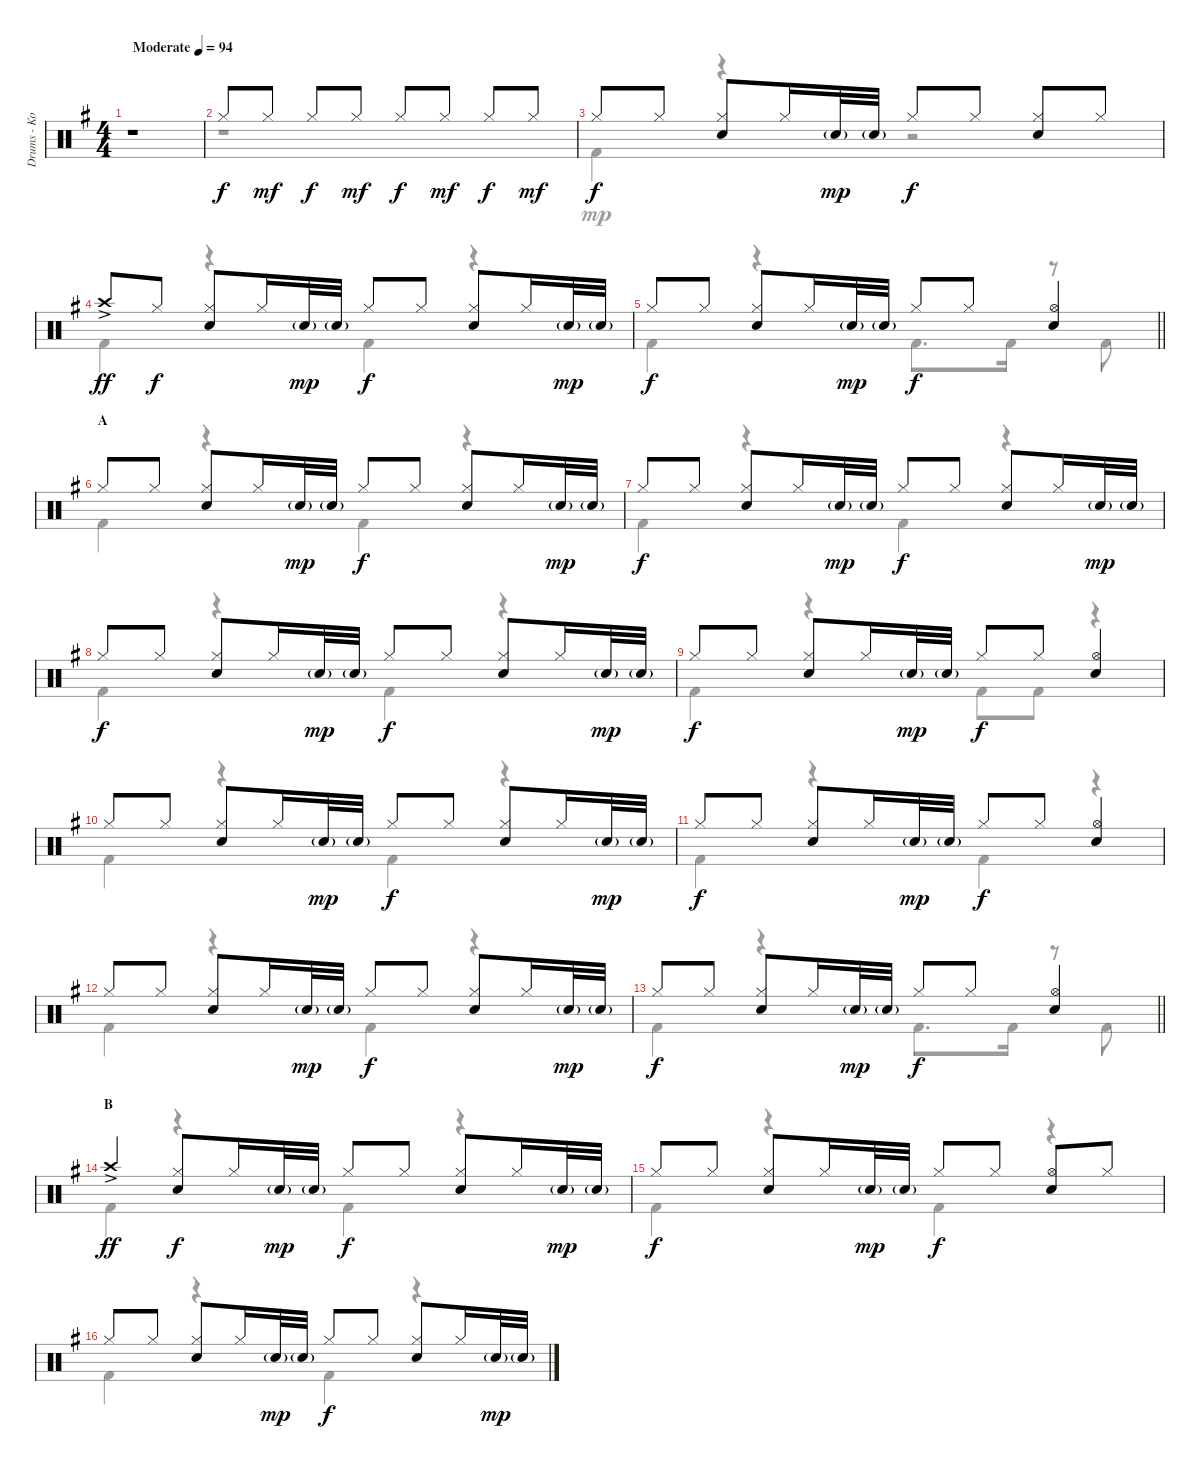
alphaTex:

\track ("Drums - Koji Hasegawa" "Drums - Ko") {instrument percussion}
\staff {score}
\articulation defaults
\voice
\ts (4 4)
\tempo (94 "Moderate")
\clef neutral
\ks g
r.1{dy f} |
"Hi-Hat (closed)".8 "Hi-Hat (closed)".8{dy mf} "Hi-Hat (closed)".8{dy f} "Hi-Hat (closed)".8{dy mf} "Hi-Hat (closed)".8{dy f} "Hi-Hat (closed)".8{dy mf} "Hi-Hat (closed)".8{dy f} "Hi-Hat (closed)".8{dy mf} |
"Hi-Hat (closed)".8{dy f} "Hi-Hat (closed)".8 ("Hi-Hat (closed)" "Electric Snare (hit)").8 "Hi-Hat (closed)".16 "Electric Snare (hit)"{g}.32{dy mp} "Electric Snare (hit)"{g}.32 "Hi-Hat (closed)".8{dy f} "Hi-Hat (closed)".8 ("Hi-Hat (closed)" "Electric Snare (hit)").8 "Hi-Hat (closed)".8 |
"Crash high (hit)"{ac}.8{dy ff} "Hi-Hat (closed)".8{dy f} ("Hi-Hat (closed)" "Electric Snare (hit)").8 "Hi-Hat (closed)".16 "Electric Snare (hit)"{g}.32{dy mp} "Electric Snare (hit)"{g}.32 "Hi-Hat (closed)".8{dy f} "Hi-Hat (closed)".8 ("Hi-Hat (closed)" "Electric Snare (hit)").8 "Hi-Hat (closed)".16 "Electric Snare (hit)"{g}.32{dy mp} "Electric Snare (hit)"{g}.32 |
\barLineRight lightlight "Hi-Hat (closed)".8{dy f} "Hi-Hat (closed)".8
("Hi-Hat (closed)" "Electric Snare (hit)").8 "Hi-Hat (closed)".16 "Electric Snare (hit)"{g}.32{dy mp} "Electric Snare (hit)"{g}.32 "Hi-Hat (closed)".8{dy f} "Hi-Hat (closed)".8 ("Hi-Hat (open)" "Electric Snare (hit)").4 |
\section ("" "A")
"Hi-Hat (closed)".8 "Hi-Hat (closed)".8 ("Hi-Hat (closed)" "Electric Snare (hit)").8 "Hi-Hat (closed)".16 "Electric Snare (hit)"{g}.32{dy mp} "Electric Snare (hit)"{g}.32 "Hi-Hat (closed)".8{dy f} "Hi-Hat (closed)".8 ("Hi-Hat (closed)" "Electric Snare (hit)").8 "Hi-Hat (closed)".16 "Electric Snare (hit)"{g}.32{dy mp} "Electric Snare (hit)"{g}.32 |
"Hi-Hat (closed)".8{dy f} "Hi-Hat (closed)".8 ("Hi-Hat (closed)" "Electric Snare (hit)").8 "Hi-Hat (closed)".16 "Electric Snare (hit)"{g}.32{dy mp} "Electric Snare (hit)"{g}.32 "Hi-Hat (closed)".8{dy f} "Hi-Hat (closed)".8 ("Hi-Hat (closed)" "Electric Snare (hit)").8 "Hi-Hat (closed)".16 "Electric Snare (hit)"{g}.32{dy mp} "Electric Snare (hit)"{g}.32 |
"Hi-Hat (closed)".8{dy f} "Hi-Hat (closed)".8 ("Hi-Hat (closed)" "Electric Snare (hit)").8 "Hi-Hat (closed)".16 "Electric Snare (hit)"{g}.32{dy mp} "Electric Snare (hit)"{g}.32 "Hi-Hat (closed)".8{dy f} "Hi-Hat (closed)".8 ("Hi-Hat (closed)" "Electric Snare (hit)").8 "Hi-Hat (closed)".16 "Electric Snare (hit)"{g}.32{dy mp} "Electric Snare (hit)"{g}.32 |
"Hi-Hat (closed)".8{dy f} "Hi-Hat (closed)".8 ("Hi-Hat (closed)" "Electric Snare (hit)").8 "Hi-Hat (closed)".16 "Electric Snare (hit)"{g}.32{dy mp} "Electric Snare (hit)"{g}.32 "Hi-Hat (closed)".8{dy f} "Hi-Hat (closed)".8 ("Hi-Hat (open)" "Electric Snare (hit)").4 |
"Hi-Hat (closed)".8 "Hi-Hat (closed)".8 ("Hi-Hat (closed)" "Electric Snare (hit)").8 "Hi-Hat (closed)".16 "Electric Snare (hit)"{g}.32{dy mp} "Electric Snare (hit)"{g}.32 "Hi-Hat (closed)".8{dy f} "Hi-Hat (closed)".8 ("Hi-Hat (closed)" "Electric Snare (hit)").8 "Hi-Hat (closed)".16 "Electric Snare (hit)"{g}.32{dy mp} "Electric Snare (hit)"{g}.32 |
"Hi-Hat (closed)".8{dy f} "Hi-Hat (closed)".8 ("Hi-Hat (closed)" "Electric Snare (hit)").8 "Hi-Hat (closed)".16 "Electric Snare (hit)"{g}.32{dy mp} "Electric Snare (hit)"{g}.32 "Hi-Hat (closed)".8{dy f} "Hi-Hat (closed)".8 ("Hi-Hat (open)" "Electric Snare (hit)").4 |
"Hi-Hat (closed)".8 "Hi-Hat (closed)".8 ("Hi-Hat (closed)" "Electric Snare (hit)").8 "Hi-Hat (closed)".16 "Electric Snare (hit)"{g}.32{dy mp} "Electric Snare (hit)"{g}.32 "Hi-Hat (closed)".8{dy f} "Hi-Hat (closed)".8 ("Hi-Hat (closed)" "Electric Snare (hit)").8 "Hi-Hat (closed)".16 "Electric Snare (hit)"{g}.32{dy mp} "Electric Snare (hit)"{g}.32 |
\barLineRight lightlight "Hi-Hat (closed)".8{dy f} "Hi-Hat (closed)".8
("Hi-Hat (closed)" "Electric Snare (hit)").8 "Hi-Hat (closed)".16 "Electric Snare (hit)"{g}.32{dy mp} "Electric Snare (hit)"{g}.32 "Hi-Hat (closed)".8{dy f} "Hi-Hat (closed)".8 ("Hi-Hat (open)" "Electric Snare (hit)").4 |
\section ("" "B")
"Crash high (hit)"{ac}.4{dy ff} ("Hi-Hat (closed)" "Electric Snare (hit)").8{dy f} "Hi-Hat (closed)".16 "Electric Snare (hit)"{g}.32{dy mp} "Electric Snare (hit)"{g}.32 "Hi-Hat (closed)".8{dy f} "Hi-Hat (closed)".8 ("Hi-Hat (closed)" "Electric Snare (hit)").8 "Hi-Hat (closed)".16 "Electric Snare (hit)"{g}.32{dy mp} "Electric Snare (hit)"{g}.32 |
"Hi-Hat (closed)".8{dy f} "Hi-Hat (closed)".8 ("Hi-Hat (closed)" "Electric Snare (hit)").8 "Hi-Hat (closed)".16 "Electric Snare (hit)"{g}.32{dy mp} "Electric Snare (hit)"{g}.32 "Hi-Hat (closed)".8{dy f} "Hi-Hat (closed)".8 ("Hi-Hat (open)" "Electric Snare (hit)").8 "Hi-Hat (closed)".8 |
"Hi-Hat (closed)".8 "Hi-Hat (closed)".8 ("Hi-Hat (closed)" "Electric Snare (hit)").8 "Hi-Hat (closed)".16 "Electric Snare (hit)"{g}.32{dy mp} "Electric Snare (hit)"{g}.32 "Hi-Hat (closed)".8{dy f} "Hi-Hat (closed)".8 ("Hi-Hat (closed)" "Electric Snare (hit)").8 "Hi-Hat (closed)".16 "Electric Snare (hit)"{g}.32{dy mp} "Electric Snare (hit)"{g}.32
\voice
\clef neutral
\ottava regular
\simile none
\ks g
|
r.1 |
"Kick (hit) 2".4 r.4 r.2 |
"Kick (hit) 2".4 r.4 "Kick (hit) 2".4 r.4 |
\barLineRight lightlight "Kick (hit) 2".4
r.4 "Kick (hit) 2".8{d} "Kick (hit) 2".16 r.8 "Kick (hit) 2".8 |
"Kick (hit) 2".4 r.4 "Kick (hit) 2".4 r.4 |
"Kick (hit) 2".4 r.4 "Kick (hit) 2".4 r.4 |
"Kick (hit) 2".4 r.4 "Kick (hit) 2".4 r.4 |
"Kick (hit) 2".4 r.4 "Kick (hit) 2".8 "Kick (hit) 2".8 r.4 |
"Kick (hit) 2".4 r.4 "Kick (hit) 2".4 r.4 |
"Kick (hit) 2".4 r.4 "Kick (hit) 2".4 r.4 |
"Kick (hit) 2".4 r.4 "Kick (hit) 2".4 r.4 |
\barLineRight lightlight "Kick (hit) 2".4
r.4 "Kick (hit) 2".8{d} "Kick (hit) 2".16 r.8 "Kick (hit) 2".8 |
"Kick (hit) 2".4 r.4 "Kick (hit) 2".4 r.4 |
"Kick (hit) 2".4 r.4 "Kick (hit) 2".4 r.4 |
"Kick (hit) 2".4 r.4 "Kick (hit) 2".4 r.4
